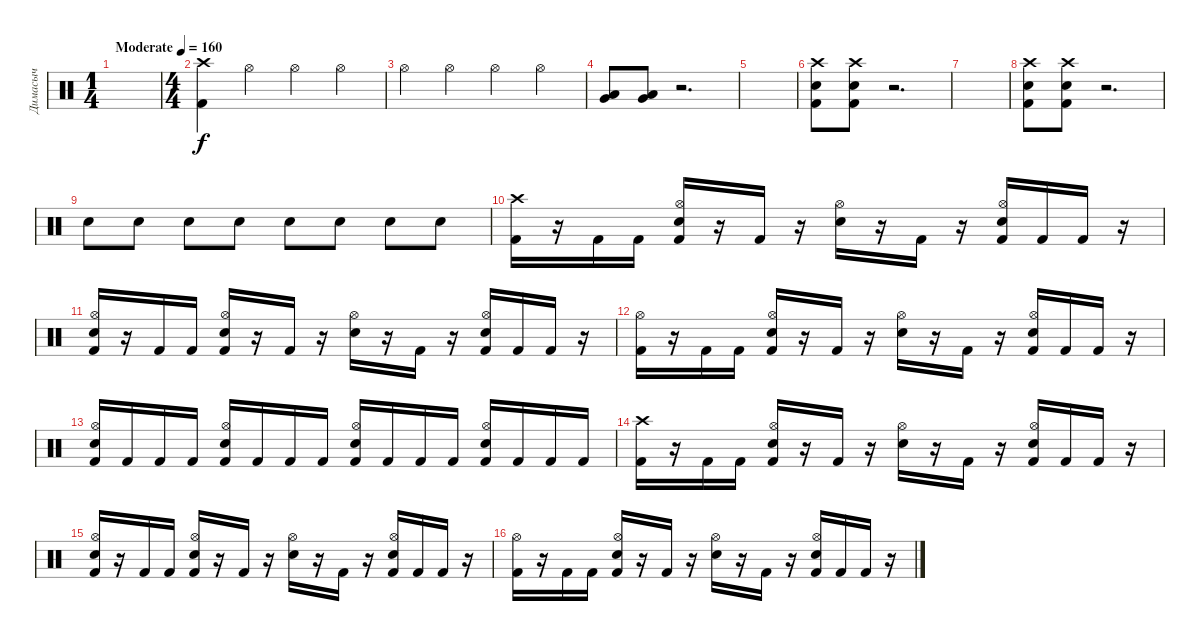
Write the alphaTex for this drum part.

\track ("Димасыч" "Димасыч") {instrument percussion}
\staff {score}
\articulation defaults
\ts (1 4)
\tempo (160 "Moderate")
\clef neutral
\ks c
|
\ts (4 4)
("Crash high (hit)" "Kick (hit) 2").4 "Hi-Hat (open)".4 "Hi-Hat (open)".4 "Hi-Hat (open)".4 |
"Hi-Hat (open)".4 "Hi-Hat (open)".4 "Hi-Hat (open)".4 "Hi-Hat (open)".4 |
("Low Tom (hit)" "Very Low Tom (hit)").8 ("Low Tom (hit)" "Very Low Tom (hit)").8 r.2{d} |
|
("Crash high (hit)" "Electric Snare (hit)" "Kick (hit) 2").8 ("Crash high (hit)" "Electric Snare (hit)" "Kick (hit) 2").8 r.2{d} |
|
("Crash high (hit)" "Electric Snare (hit)" "Kick (hit) 2").8 ("Crash high (hit)" "Electric Snare (hit)" "Kick (hit) 2").8 r.2{d} |
"Electric Snare (hit)".8 "Electric Snare (hit)".8 "Electric Snare (hit)".8 "Electric Snare (hit)".8 "Electric Snare (hit)".8 "Electric Snare (hit)".8 "Electric Snare (hit)".8 "Electric Snare (hit)".8 |
("Crash high (hit)" "Kick (hit) 2").16 r.16 "Kick (hit) 2".16 "Kick (hit) 2".16 ("Hi-Hat (open)" "Electric Snare (hit)" "Kick (hit) 2").16 r.16 "Kick (hit) 2".16 r.16 ("Hi-Hat (open)" "Electric Snare (hit)").16 r.16 "Kick (hit) 2".16 r.16 ("Hi-Hat (open)" "Electric Snare (hit)" "Kick (hit) 2").16 "Kick (hit) 2".16 "Kick (hit) 2".16 r.16 |
("Hi-Hat (open)" "Electric Snare (hit)" "Kick (hit) 2").16 r.16 "Kick (hit) 2".16 "Kick (hit) 2".16 ("Hi-Hat (open)" "Electric Snare (hit)" "Kick (hit) 2").16 r.16 "Kick (hit) 2".16 r.16 ("Hi-Hat (open)" "Electric Snare (hit)").16 r.16 "Kick (hit) 2".16 r.16 ("Hi-Hat (open)" "Electric Snare (hit)" "Kick (hit) 2").16 "Kick (hit) 2".16 "Kick (hit) 2".16 r.16 |
("Hi-Hat (open)" "Kick (hit) 2").16 r.16 "Kick (hit) 2".16 "Kick (hit) 2".16 ("Hi-Hat (open)" "Electric Snare (hit)" "Kick (hit) 2").16 r.16 "Kick (hit) 2".16 r.16 ("Hi-Hat (open)" "Electric Snare (hit)").16 r.16 "Kick (hit) 2".16 r.16 ("Hi-Hat (open)" "Electric Snare (hit)" "Kick (hit) 2").16 "Kick (hit) 2".16 "Kick (hit) 2".16 r.16 |
("Hi-Hat (open)" "Electric Snare (hit)" "Kick (hit) 2").16 "Kick (hit) 2".16 "Kick (hit) 2".16 "Kick (hit) 2".16 ("Hi-Hat (open)" "Electric Snare (hit)" "Kick (hit) 2").16 "Kick (hit) 2".16 "Kick (hit) 2".16 "Kick (hit) 2".16 ("Hi-Hat (open)" "Electric Snare (hit)" "Kick (hit) 2").16 "Kick (hit) 2".16 "Kick (hit) 2".16 "Kick (hit) 2".16 ("Hi-Hat (open)" "Electric Snare (hit)" "Kick (hit) 2").16 "Kick (hit) 2".16 "Kick (hit) 2".16 "Kick (hit) 2".16 |
("Crash high (hit)" "Kick (hit) 2").16 r.16 "Kick (hit) 2".16 "Kick (hit) 2".16 ("Hi-Hat (open)" "Electric Snare (hit)" "Kick (hit) 2").16 r.16 "Kick (hit) 2".16 r.16 ("Hi-Hat (open)" "Electric Snare (hit)").16 r.16 "Kick (hit) 2".16 r.16 ("Hi-Hat (open)" "Electric Snare (hit)" "Kick (hit) 2").16 "Kick (hit) 2".16 "Kick (hit) 2".16 r.16 |
("Hi-Hat (open)" "Electric Snare (hit)" "Kick (hit) 2").16 r.16 "Kick (hit) 2".16 "Kick (hit) 2".16 ("Hi-Hat (open)" "Electric Snare (hit)" "Kick (hit) 2").16 r.16 "Kick (hit) 2".16 r.16 ("Hi-Hat (open)" "Electric Snare (hit)").16 r.16 "Kick (hit) 2".16 r.16 ("Hi-Hat (open)" "Electric Snare (hit)" "Kick (hit) 2").16 "Kick (hit) 2".16 "Kick (hit) 2".16 r.16 |
("Hi-Hat (open)" "Kick (hit) 2").16 r.16 "Kick (hit) 2".16 "Kick (hit) 2".16 ("Hi-Hat (open)" "Electric Snare (hit)" "Kick (hit) 2").16 r.16 "Kick (hit) 2".16 r.16 ("Hi-Hat (open)" "Electric Snare (hit)").16 r.16 "Kick (hit) 2".16 r.16 ("Hi-Hat (open)" "Electric Snare (hit)" "Kick (hit) 2").16 "Kick (hit) 2".16 "Kick (hit) 2".16 r.16
